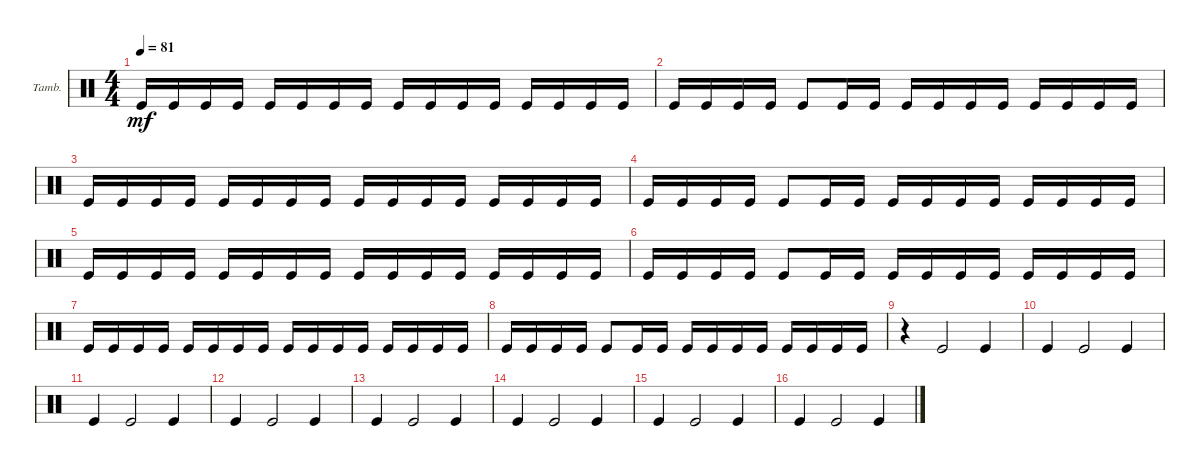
\bracketExtendMode groupsimilarinstruments
\firstSystemTrackNameOrientation horizontal
\otherSystemsTrackNameOrientation horizontal
\track ("Tambourine" "Tamb.") {instrument percussion}
\staff {score}
\articulation defaults
\ts (4 4)
\tempo 81
\clef neutral
\ks c "Kick (hit)".16{dy mf} "Kick (hit)".16 "Kick (hit)".16 "Kick (hit)".16 "Kick (hit)".16 "Kick (hit)".16 "Kick (hit)".16 "Kick (hit)".16 "Kick (hit)".16 "Kick (hit)".16 "Kick (hit)".16 "Kick (hit)".16 "Kick (hit)".16 "Kick (hit)".16 "Kick (hit)".16 "Kick (hit)".16
|
"Kick (hit)".16 "Kick (hit)".16 "Kick (hit)".16 "Kick (hit)".16 "Kick (hit)".8 "Kick (hit)".16 "Kick (hit)".16 "Kick (hit)".16 "Kick (hit)".16 "Kick (hit)".16 "Kick (hit)".16 "Kick (hit)".16 "Kick (hit)".16 "Kick (hit)".16 "Kick (hit)".16 |
"Kick (hit)".16 "Kick (hit)".16 "Kick (hit)".16 "Kick (hit)".16 "Kick (hit)".16 "Kick (hit)".16 "Kick (hit)".16 "Kick (hit)".16 "Kick (hit)".16 "Kick (hit)".16 "Kick (hit)".16 "Kick (hit)".16 "Kick (hit)".16 "Kick (hit)".16 "Kick (hit)".16 "Kick (hit)".16 |
"Kick (hit)".16 "Kick (hit)".16 "Kick (hit)".16 "Kick (hit)".16 "Kick (hit)".8 "Kick (hit)".16 "Kick (hit)".16 "Kick (hit)".16 "Kick (hit)".16 "Kick (hit)".16 "Kick (hit)".16 "Kick (hit)".16 "Kick (hit)".16 "Kick (hit)".16 "Kick (hit)".16 |
"Kick (hit)".16 "Kick (hit)".16 "Kick (hit)".16 "Kick (hit)".16 "Kick (hit)".16 "Kick (hit)".16 "Kick (hit)".16 "Kick (hit)".16 "Kick (hit)".16 "Kick (hit)".16 "Kick (hit)".16 "Kick (hit)".16 "Kick (hit)".16 "Kick (hit)".16 "Kick (hit)".16 "Kick (hit)".16 |
"Kick (hit)".16 "Kick (hit)".16 "Kick (hit)".16 "Kick (hit)".16 "Kick (hit)".8 "Kick (hit)".16 "Kick (hit)".16 "Kick (hit)".16 "Kick (hit)".16 "Kick (hit)".16 "Kick (hit)".16 "Kick (hit)".16 "Kick (hit)".16 "Kick (hit)".16 "Kick (hit)".16 |
"Kick (hit)".16 "Kick (hit)".16 "Kick (hit)".16 "Kick (hit)".16 "Kick (hit)".16 "Kick (hit)".16 "Kick (hit)".16 "Kick (hit)".16 "Kick (hit)".16 "Kick (hit)".16 "Kick (hit)".16 "Kick (hit)".16 "Kick (hit)".16 "Kick (hit)".16 "Kick (hit)".16 "Kick (hit)".16 |
"Kick (hit)".16 "Kick (hit)".16 "Kick (hit)".16 "Kick (hit)".16 "Kick (hit)".8 "Kick (hit)".16 "Kick (hit)".16 "Kick (hit)".16 "Kick (hit)".16 "Kick (hit)".16 "Kick (hit)".16 "Kick (hit)".16 "Kick (hit)".16 "Kick (hit)".16 "Kick (hit)".16 |
r.4 "Kick (hit)".2 "Kick (hit)".4 |
"Kick (hit)".4 "Kick (hit)".2 "Kick (hit)".4 |
"Kick (hit)".4 "Kick (hit)".2 "Kick (hit)".4 |
"Kick (hit)".4 "Kick (hit)".2 "Kick (hit)".4 |
"Kick (hit)".4 "Kick (hit)".2 "Kick (hit)".4 |
"Kick (hit)".4 "Kick (hit)".2 "Kick (hit)".4 |
"Kick (hit)".4 "Kick (hit)".2 "Kick (hit)".4 |
"Kick (hit)".4 "Kick (hit)".2 "Kick (hit)".4
